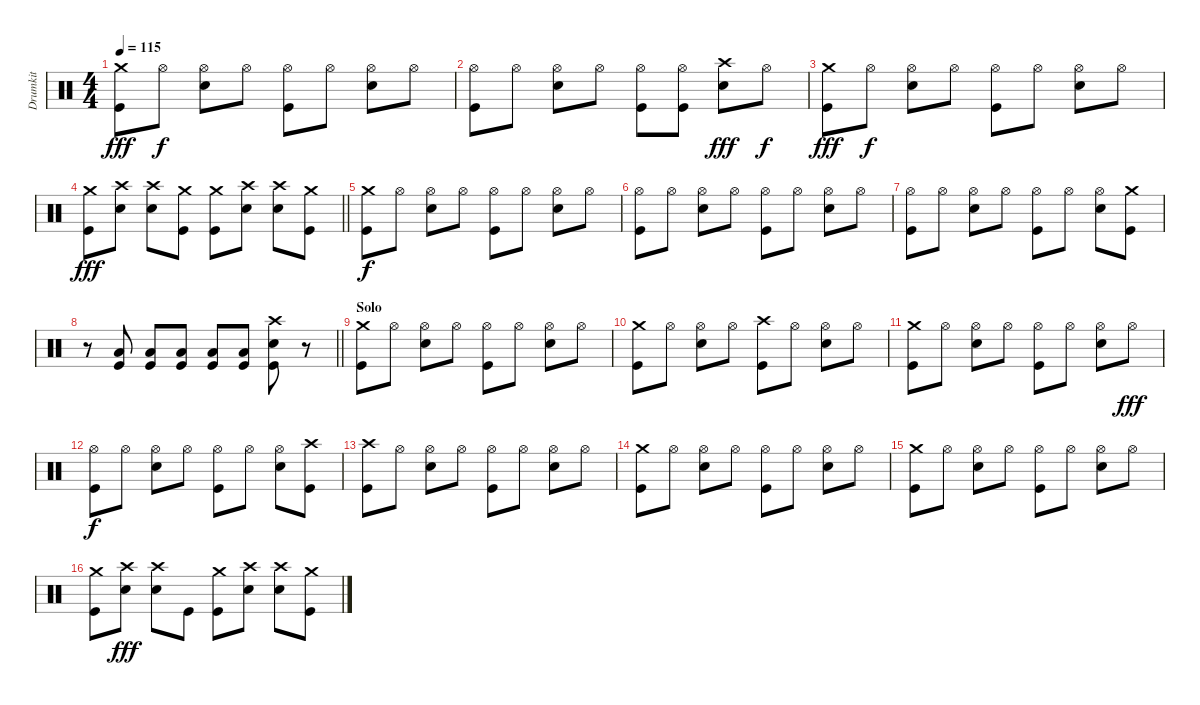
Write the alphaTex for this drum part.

\track ("Drumkit" "Drumkit") {instrument percussion}
\staff {score}
\articulation defaults
\ts (4 4)
\tempo 115
\clef neutral
\ks c
("Crash medium (hit)" "Kick (hit)").8{dy fff} "Hi-Hat (open)".8{dy f} ("Hi-Hat (open)" "Snare (hit) 2").8 "Hi-Hat (open)".8 ("Hi-Hat (open)" "Kick (hit)").8 "Hi-Hat (open)".8 ("Hi-Hat (open)" "Snare (hit) 2").8 "Hi-Hat (open)".8 |
("Hi-Hat (open)" "Kick (hit)").8 "Hi-Hat (open)".8 ("Hi-Hat (open)" "Snare (hit) 2").8 "Hi-Hat (open)".8 ("Hi-Hat (open)" "Kick (hit)").8 ("Hi-Hat (open)" "Kick (hit)").8 ("Crash high (hit)" "Snare (hit) 2").8{dy fff} "Hi-Hat (open)".8{dy f} |
("Crash medium (hit)" "Kick (hit)").8{dy fff} "Hi-Hat (open)".8{dy f} ("Hi-Hat (open)" "Snare (hit) 2").8 "Hi-Hat (open)".8 ("Hi-Hat (open)" "Kick (hit)").8 "Hi-Hat (open)".8 ("Hi-Hat (open)" "Snare (hit) 2").8 "Hi-Hat (open)".8 |
\barLineRight lightlight
("Crash medium (hit)" "Kick (hit)").8{dy fff} ("Crash high (hit)" "Snare (hit) 2").8 ("Crash high (hit)" "Snare (hit) 2").8 ("Crash medium (hit)" "Kick (hit)").8 ("Crash medium (hit)" "Kick (hit)").8 ("Crash high (hit)" "Snare (hit) 2").8 ("Crash high (hit)" "Snare (hit) 2").8 ("Crash medium (hit)" "Kick (hit)").8 |
("Crash medium (hit)" "Kick (hit)").8{dy f} "Hi-Hat (open)".8 ("Hi-Hat (open)" "Snare (hit) 2").8 "Hi-Hat (open)".8 ("Hi-Hat (open)" "Kick (hit)").8 "Hi-Hat (open)".8 ("Hi-Hat (open)" "Snare (hit) 2").8 "Hi-Hat (open)".8 |
("Hi-Hat (open)" "Kick (hit)").8 "Hi-Hat (open)".8 ("Hi-Hat (open)" "Snare (hit) 2").8 "Hi-Hat (open)".8 ("Hi-Hat (open)" "Kick (hit)").8 "Hi-Hat (open)".8 ("Hi-Hat (open)" "Snare (hit) 2").8 "Hi-Hat (open)".8 |
("Hi-Hat (open)" "Kick (hit)").8 "Hi-Hat (open)".8 ("Hi-Hat (open)" "Snare (hit) 2").8 "Hi-Hat (open)".8 ("Hi-Hat (open)" "Kick (hit)").8 "Hi-Hat (open)".8 ("Hi-Hat (open)" "Snare (hit) 2").8 ("Crash medium (hit)" "Kick (hit)").8 |
\barLineRight lightlight
r.8 ("Kick (hit)" "Low Tom (hit)").8 ("Kick (hit)" "Low Tom (hit)").8 ("Kick (hit)" "Low Tom (hit)").8 ("Kick (hit)" "Low Tom (hit)").8 ("Kick (hit)" "Low Tom (hit)").8 ("Crash high (hit)" "Kick (hit)" "Snare (hit) 2").8 r.8 |
\section ("" "Solo")
("Crash medium (hit)" "Kick (hit)").8 "Hi-Hat (open)".8 ("Hi-Hat (open)" "Snare (hit) 2").8 "Hi-Hat (open)".8 ("Hi-Hat (open)" "Kick (hit)").8 "Hi-Hat (open)".8 ("Hi-Hat (open)" "Snare (hit) 2").8 "Hi-Hat (open)".8 |
("Crash medium (hit)" "Kick (hit)").8 "Hi-Hat (open)".8 ("Hi-Hat (open)" "Snare (hit) 2").8 "Hi-Hat (open)".8 ("Crash high (hit)" "Kick (hit)").8 "Hi-Hat (open)".8 ("Hi-Hat (open)" "Snare (hit) 2").8 "Hi-Hat (open)".8 |
("Crash medium (hit)" "Kick (hit)").8 "Hi-Hat (open)".8 ("Hi-Hat (open)" "Snare (hit) 2").8 "Hi-Hat (open)".8 ("Hi-Hat (open)" "Kick (hit)").8 "Hi-Hat (open)".8 ("Hi-Hat (open)" "Snare (hit) 2").8 "Hi-Hat (open)".8{dy fff} |
("Hi-Hat (open)" "Kick (hit)").8{dy f} "Hi-Hat (open)".8 ("Hi-Hat (open)" "Snare (hit) 2").8 "Hi-Hat (open)".8 ("Hi-Hat (open)" "Kick (hit)").8 "Hi-Hat (open)".8 ("Hi-Hat (open)" "Snare (hit) 2").8 ("Crash high (hit)" "Kick (hit)").8 |
("Crash high (hit)" "Kick (hit)").8 "Hi-Hat (open)".8 ("Hi-Hat (open)" "Snare (hit) 2").8 "Hi-Hat (open)".8 ("Hi-Hat (open)" "Kick (hit)").8 "Hi-Hat (open)".8 ("Hi-Hat (open)" "Snare (hit) 2").8 "Hi-Hat (open)".8 |
("Crash medium (hit)" "Kick (hit)").8 "Hi-Hat (open)".8 ("Hi-Hat (open)" "Snare (hit) 2").8 "Hi-Hat (open)".8 ("Hi-Hat (open)" "Kick (hit)").8 "Hi-Hat (open)".8 ("Hi-Hat (open)" "Snare (hit) 2").8 "Hi-Hat (open)".8 |
("Crash medium (hit)" "Kick (hit)").8 "Hi-Hat (open)".8 ("Hi-Hat (open)" "Snare (hit) 2").8 "Hi-Hat (open)".8 ("Hi-Hat (open)" "Kick (hit)").8 "Hi-Hat (open)".8 ("Hi-Hat (open)" "Snare (hit) 2").8 "Hi-Hat (open)".8 |
("Crash medium (hit)" "Kick (hit)").8 ("Crash high (hit)" "Snare (hit) 2").8{dy fff} ("Crash high (hit)" "Snare (hit) 2").8 "Kick (hit)".8 ("Crash medium (hit)" "Kick (hit)").8 ("Crash high (hit)" "Snare (hit) 2").8 ("Crash high (hit)" "Snare (hit) 2").8 ("Crash medium (hit)" "Kick (hit)").8
